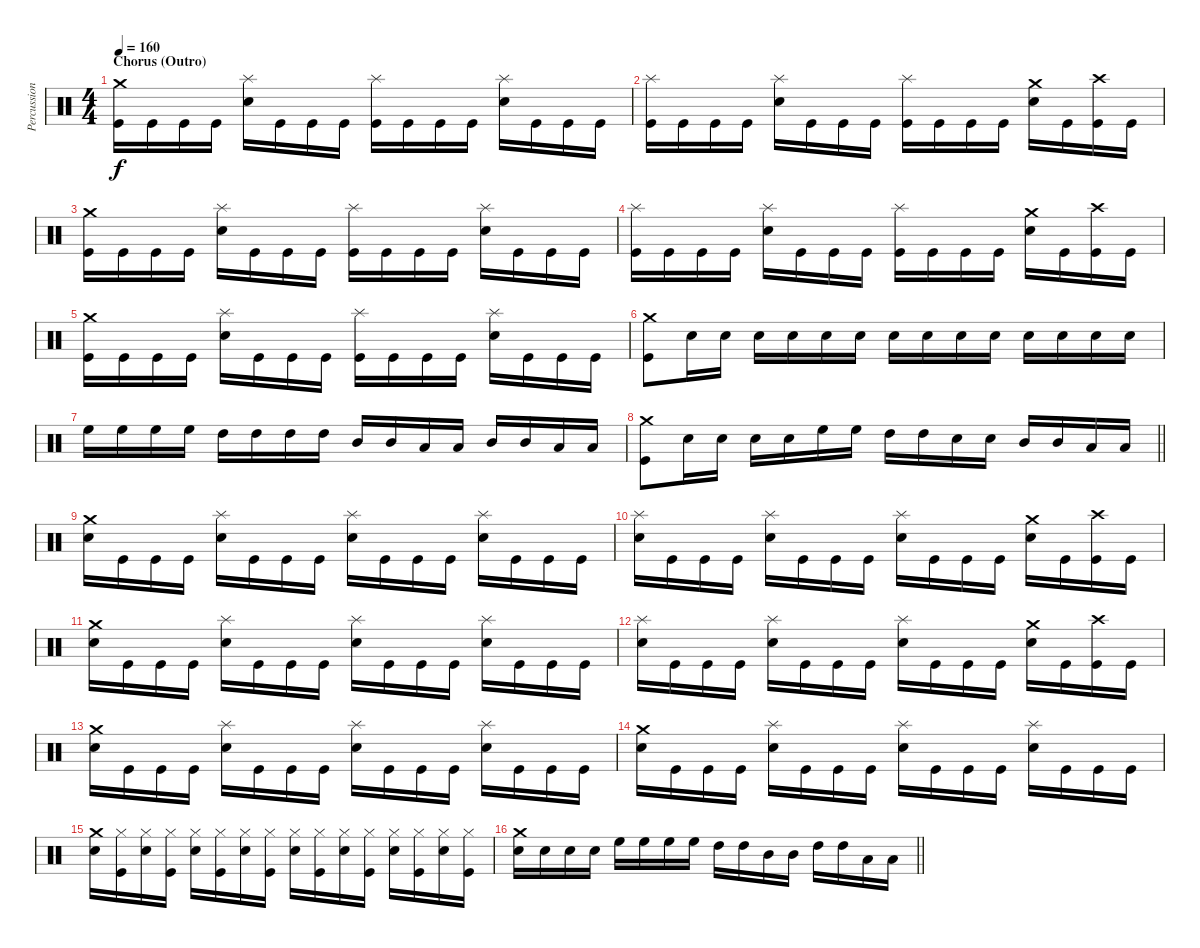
\track ("Percussion" "Percussion") {instrument percussion}
\staff {score}
\articulation defaults
\ts (4 4)
\section ("" "Chorus (Outro)")
\tempo 160
\clef neutral
\ks c
("Crash medium (hit)" "Kick (hit)").16{dy f} "Kick (hit)".16 "Kick (hit)".16 "Kick (hit)".16 ("Splash (hit)" "Snare (hit) 2").16 "Kick (hit)".16 "Kick (hit)".16 "Kick (hit)".16 ("Splash (hit)" "Kick (hit)").16 "Kick (hit)".16 "Kick (hit)".16 "Kick (hit)".16 ("Splash (hit)" "Snare (hit) 2").16 "Kick (hit)".16 "Kick (hit)".16 "Kick (hit)".16 |
("Splash (hit)" "Kick (hit)").16 "Kick (hit)".16 "Kick (hit)".16 "Kick (hit)".16 ("Splash (hit)" "Snare (hit) 2").16 "Kick (hit)".16 "Kick (hit)".16 "Kick (hit)".16 ("Splash (hit)" "Kick (hit)").16 "Kick (hit)".16 "Kick (hit)".16 "Kick (hit)".16 ("Crash medium (hit)" "Snare (hit) 2").16 "Kick (hit)".16 ("Crash high (hit)" "Kick (hit)").16 "Kick (hit)".16 |
("Crash medium (hit)" "Kick (hit)").16 "Kick (hit)".16 "Kick (hit)".16 "Kick (hit)".16 ("Splash (hit)" "Snare (hit) 2").16 "Kick (hit)".16 "Kick (hit)".16 "Kick (hit)".16 ("Splash (hit)" "Kick (hit)").16 "Kick (hit)".16 "Kick (hit)".16 "Kick (hit)".16 ("Splash (hit)" "Snare (hit) 2").16 "Kick (hit)".16 "Kick (hit)".16 "Kick (hit)".16 |
("Splash (hit)" "Kick (hit)").16 "Kick (hit)".16 "Kick (hit)".16 "Kick (hit)".16 ("Splash (hit)" "Snare (hit) 2").16 "Kick (hit)".16 "Kick (hit)".16 "Kick (hit)".16 ("Splash (hit)" "Kick (hit)").16 "Kick (hit)".16 "Kick (hit)".16 "Kick (hit)".16 ("Crash medium (hit)" "Snare (hit) 2").16 "Kick (hit)".16 ("Crash high (hit)" "Kick (hit)").16 "Kick (hit)".16 |
("Crash medium (hit)" "Kick (hit)").16 "Kick (hit)".16 "Kick (hit)".16 "Kick (hit)".16 ("Splash (hit)" "Snare (hit) 2").16 "Kick (hit)".16 "Kick (hit)".16 "Kick (hit)".16 ("Splash (hit)" "Kick (hit)").16 "Kick (hit)".16 "Kick (hit)".16 "Kick (hit)".16 ("Splash (hit)" "Snare (hit) 2").16 "Kick (hit)".16 "Kick (hit)".16 "Kick (hit)".16 |
("Crash medium (hit)" "Kick (hit)").8 "Snare (hit) 2".16 "Snare (hit) 2".16 "Snare (hit) 2".16 "Snare (hit) 2".16 "Snare (hit) 2".16 "Snare (hit) 2".16 "Snare (hit) 2".16 "Snare (hit) 2".16 "Snare (hit) 2".16 "Snare (hit) 2".16 "Snare (hit) 2".16 "Snare (hit) 2".16 "Snare (hit) 2".16 "Snare (hit) 2".16 |
"High Floor Tom (hit)".16 "High Floor Tom (hit)".16 "High Floor Tom (hit)".16 "High Floor Tom (hit)".16 "High Tom (hit)".16 "High Tom (hit)".16 "High Tom (hit)".16 "High Tom (hit)".16 "Mid Tom (hit)".16 "Mid Tom (hit)".16 "Low Tom (hit)".16 "Low Tom (hit)".16 "Mid Tom (hit)".16 "Mid Tom (hit)".16 "Low Tom (hit)".16 "Low Tom (hit)".16 |
\barLineRight lightlight
("Crash medium (hit)" "Kick (hit)").8 "Snare (hit) 2".16 "Snare (hit) 2".16 "Snare (hit) 2".16 "Snare (hit) 2".16 "High Floor Tom (hit)".16 "High Floor Tom (hit)".16 "High Tom (hit)".16 "High Tom (hit)".16 "Snare (hit) 2".16 "Snare (hit) 2".16 "Mid Tom (hit)".16 "Mid Tom (hit)".16 "Low Tom (hit)".16 "Low Tom (hit)".16 |
("Crash medium (hit)" "Snare (hit) 2").16 "Kick (hit)".16 "Kick (hit)".16 "Kick (hit)".16 ("Splash (hit)" "Snare (hit) 2").16 "Kick (hit)".16 "Kick (hit)".16 "Kick (hit)".16 ("Splash (hit)" "Snare (hit) 2").16 "Kick (hit)".16 "Kick (hit)".16 "Kick (hit)".16 ("Splash (hit)" "Snare (hit) 2").16 "Kick (hit)".16 "Kick (hit)".16 "Kick (hit)".16 |
("Splash (hit)" "Snare (hit) 2").16 "Kick (hit)".16 "Kick (hit)".16 "Kick (hit)".16 ("Splash (hit)" "Snare (hit) 2").16 "Kick (hit)".16 "Kick (hit)".16 "Kick (hit)".16 ("Splash (hit)" "Snare (hit) 2").16 "Kick (hit)".16 "Kick (hit)".16 "Kick (hit)".16 ("Crash medium (hit)" "Snare (hit) 2").16 "Kick (hit)".16 ("Crash high (hit)" "Kick (hit)").16 "Kick (hit)".16 |
("Crash medium (hit)" "Snare (hit) 2").16 "Kick (hit)".16 "Kick (hit)".16 "Kick (hit)".16 ("Splash (hit)" "Snare (hit) 2").16 "Kick (hit)".16 "Kick (hit)".16 "Kick (hit)".16 ("Splash (hit)" "Snare (hit) 2").16 "Kick (hit)".16 "Kick (hit)".16 "Kick (hit)".16 ("Splash (hit)" "Snare (hit) 2").16 "Kick (hit)".16 "Kick (hit)".16 "Kick (hit)".16 |
("Splash (hit)" "Snare (hit) 2").16 "Kick (hit)".16 "Kick (hit)".16 "Kick (hit)".16 ("Splash (hit)" "Snare (hit) 2").16 "Kick (hit)".16 "Kick (hit)".16 "Kick (hit)".16 ("Splash (hit)" "Snare (hit) 2").16 "Kick (hit)".16 "Kick (hit)".16 "Kick (hit)".16 ("Crash medium (hit)" "Snare (hit) 2").16 "Kick (hit)".16 ("Crash high (hit)" "Kick (hit)").16 "Kick (hit)".16 |
("Crash medium (hit)" "Snare (hit) 2").16 "Kick (hit)".16 "Kick (hit)".16 "Kick (hit)".16 ("Splash (hit)" "Snare (hit) 2").16 "Kick (hit)".16 "Kick (hit)".16 "Kick (hit)".16 ("Splash (hit)" "Snare (hit) 2").16 "Kick (hit)".16 "Kick (hit)".16 "Kick (hit)".16 ("Splash (hit)" "Snare (hit) 2").16 "Kick (hit)".16 "Kick (hit)".16 "Kick (hit)".16 |
("Crash medium (hit)" "Snare (hit) 2").16 "Kick (hit)".16 "Kick (hit)".16 "Kick (hit)".16 ("Splash (hit)" "Snare (hit) 2").16 "Kick (hit)".16 "Kick (hit)".16 "Kick (hit)".16 ("Splash (hit)" "Snare (hit) 2").16 "Kick (hit)".16 "Kick (hit)".16 "Kick (hit)".16 ("Splash (hit)" "Snare (hit) 2").16 "Kick (hit)".16 "Kick (hit)".16 "Kick (hit)".16 |
("Crash medium (hit)" "Snare (hit) 2").16 ("Hi-Hat (closed)" "Kick (hit)").16 ("Hi-Hat (closed)" "Snare (hit) 2").16 ("Hi-Hat (closed)" "Kick (hit)").16 ("Hi-Hat (closed)" "Snare (hit) 2").16 ("Hi-Hat (closed)" "Kick (hit)").16 ("Hi-Hat (closed)" "Snare (hit) 2").16 ("Hi-Hat (closed)" "Kick (hit)").16 ("Hi-Hat (closed)" "Snare (hit) 2").16 ("Hi-Hat (closed)" "Kick (hit)").16 ("Hi-Hat (closed)" "Snare (hit) 2").16 ("Hi-Hat (closed)" "Kick (hit)").16 ("Hi-Hat (closed)" "Snare (hit) 2").16 ("Hi-Hat (closed)" "Kick (hit)").16 ("Hi-Hat (closed)" "Snare (hit) 2").16 ("Hi-Hat (closed)" "Kick (hit)").16 |
\barLineRight lightlight
("Crash medium (hit)" "Snare (hit) 2").16 "Snare (hit) 2".16 "Snare (hit) 2".16 "Snare (hit) 2".16 "High Floor Tom (hit)".16 "High Floor Tom (hit)".16 "High Floor Tom (hit)".16 "High Floor Tom (hit)".16 "High Tom (hit)".16 "High Tom (hit)".16 "Mid Tom (hit)".16 "Mid Tom (hit)".16 "High Tom (hit)".16 "High Tom (hit)".16 "Low Tom (hit)".16 "Low Tom (hit)".16
